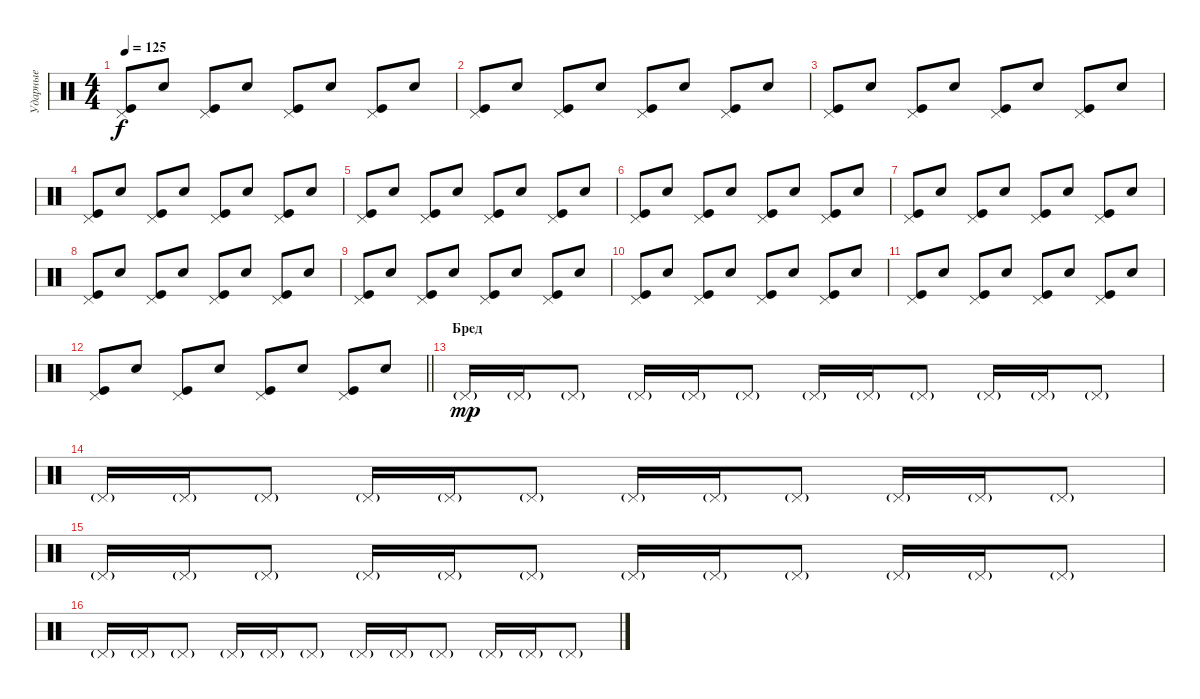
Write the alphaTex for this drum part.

\track ("Ударные" "Ударные") {instrument percussion}
\staff {score}
\articulation defaults
\ts (4 4)
\tempo 125
\clef neutral
\ks c
("Pedal Hi-Hat (hit)" "Kick (hit)").8{dy f} "Snare (hit) 2".8 ("Pedal Hi-Hat (hit)" "Kick (hit)").8 "Snare (hit) 2".8 ("Pedal Hi-Hat (hit)" "Kick (hit)").8 "Snare (hit) 2".8 ("Pedal Hi-Hat (hit)" "Kick (hit)").8 "Snare (hit) 2".8 |
("Pedal Hi-Hat (hit)" "Kick (hit)").8 "Snare (hit) 2".8 ("Pedal Hi-Hat (hit)" "Kick (hit)").8 "Snare (hit) 2".8 ("Pedal Hi-Hat (hit)" "Kick (hit)").8 "Snare (hit) 2".8 ("Pedal Hi-Hat (hit)" "Kick (hit)").8 "Snare (hit) 2".8 |
("Pedal Hi-Hat (hit)" "Kick (hit)").8 "Snare (hit) 2".8 ("Pedal Hi-Hat (hit)" "Kick (hit)").8 "Snare (hit) 2".8 ("Pedal Hi-Hat (hit)" "Kick (hit)").8 "Snare (hit) 2".8 ("Pedal Hi-Hat (hit)" "Kick (hit)").8 "Snare (hit) 2".8 |
("Pedal Hi-Hat (hit)" "Kick (hit)").8 "Snare (hit) 2".8 ("Pedal Hi-Hat (hit)" "Kick (hit)").8 "Snare (hit) 2".8 ("Pedal Hi-Hat (hit)" "Kick (hit)").8 "Snare (hit) 2".8 ("Pedal Hi-Hat (hit)" "Kick (hit)").8 "Snare (hit) 2".8 |
("Pedal Hi-Hat (hit)" "Kick (hit)").8 "Snare (hit) 2".8 ("Pedal Hi-Hat (hit)" "Kick (hit)").8 "Snare (hit) 2".8 ("Pedal Hi-Hat (hit)" "Kick (hit)").8 "Snare (hit) 2".8 ("Pedal Hi-Hat (hit)" "Kick (hit)").8 "Snare (hit) 2".8 |
("Pedal Hi-Hat (hit)" "Kick (hit)").8 "Snare (hit) 2".8 ("Pedal Hi-Hat (hit)" "Kick (hit)").8 "Snare (hit) 2".8 ("Pedal Hi-Hat (hit)" "Kick (hit)").8 "Snare (hit) 2".8 ("Pedal Hi-Hat (hit)" "Kick (hit)").8 "Snare (hit) 2".8 |
("Pedal Hi-Hat (hit)" "Kick (hit)").8 "Snare (hit) 2".8 ("Pedal Hi-Hat (hit)" "Kick (hit)").8 "Snare (hit) 2".8 ("Pedal Hi-Hat (hit)" "Kick (hit)").8 "Snare (hit) 2".8 ("Pedal Hi-Hat (hit)" "Kick (hit)").8 "Snare (hit) 2".8 |
("Pedal Hi-Hat (hit)" "Kick (hit)").8 "Snare (hit) 2".8 ("Pedal Hi-Hat (hit)" "Kick (hit)").8 "Snare (hit) 2".8 ("Pedal Hi-Hat (hit)" "Kick (hit)").8 "Snare (hit) 2".8 ("Pedal Hi-Hat (hit)" "Kick (hit)").8 "Snare (hit) 2".8 |
("Pedal Hi-Hat (hit)" "Kick (hit)").8 "Snare (hit) 2".8 ("Pedal Hi-Hat (hit)" "Kick (hit)").8 "Snare (hit) 2".8 ("Pedal Hi-Hat (hit)" "Kick (hit)").8 "Snare (hit) 2".8 ("Pedal Hi-Hat (hit)" "Kick (hit)").8 "Snare (hit) 2".8 |
("Pedal Hi-Hat (hit)" "Kick (hit)").8 "Snare (hit) 2".8 ("Pedal Hi-Hat (hit)" "Kick (hit)").8 "Snare (hit) 2".8 ("Pedal Hi-Hat (hit)" "Kick (hit)").8 "Snare (hit) 2".8 ("Pedal Hi-Hat (hit)" "Kick (hit)").8 "Snare (hit) 2".8 |
("Pedal Hi-Hat (hit)" "Kick (hit)").8 "Snare (hit) 2".8 ("Pedal Hi-Hat (hit)" "Kick (hit)").8 "Snare (hit) 2".8 ("Pedal Hi-Hat (hit)" "Kick (hit)").8 "Snare (hit) 2".8 ("Pedal Hi-Hat (hit)" "Kick (hit)").8 "Snare (hit) 2".8 |
\barLineRight lightlight
("Pedal Hi-Hat (hit)" "Kick (hit)").8 "Snare (hit) 2".8 ("Pedal Hi-Hat (hit)" "Kick (hit)").8 "Snare (hit) 2".8 ("Pedal Hi-Hat (hit)" "Kick (hit)").8 "Snare (hit) 2".8 ("Pedal Hi-Hat (hit)" "Kick (hit)").8 "Snare (hit) 2".8 |
\section ("" "Бред")
"Pedal Hi-Hat (hit)"{g}.16{dy mp} "Pedal Hi-Hat (hit)"{g}.16 "Pedal Hi-Hat (hit)"{g}.8 "Pedal Hi-Hat (hit)"{g}.16 "Pedal Hi-Hat (hit)"{g}.16 "Pedal Hi-Hat (hit)"{g}.8 "Pedal Hi-Hat (hit)"{g}.16 "Pedal Hi-Hat (hit)"{g}.16 "Pedal Hi-Hat (hit)"{g}.8 "Pedal Hi-Hat (hit)"{g}.16 "Pedal Hi-Hat (hit)"{g}.16 "Pedal Hi-Hat (hit)"{g}.8 |
"Pedal Hi-Hat (hit)"{g}.16 "Pedal Hi-Hat (hit)"{g}.16 "Pedal Hi-Hat (hit)"{g}.8 "Pedal Hi-Hat (hit)"{g}.16 "Pedal Hi-Hat (hit)"{g}.16 "Pedal Hi-Hat (hit)"{g}.8 "Pedal Hi-Hat (hit)"{g}.16 "Pedal Hi-Hat (hit)"{g}.16 "Pedal Hi-Hat (hit)"{g}.8 "Pedal Hi-Hat (hit)"{g}.16 "Pedal Hi-Hat (hit)"{g}.16 "Pedal Hi-Hat (hit)"{g}.8 |
"Pedal Hi-Hat (hit)"{g}.16 "Pedal Hi-Hat (hit)"{g}.16 "Pedal Hi-Hat (hit)"{g}.8 "Pedal Hi-Hat (hit)"{g}.16 "Pedal Hi-Hat (hit)"{g}.16 "Pedal Hi-Hat (hit)"{g}.8 "Pedal Hi-Hat (hit)"{g}.16 "Pedal Hi-Hat (hit)"{g}.16 "Pedal Hi-Hat (hit)"{g}.8 "Pedal Hi-Hat (hit)"{g}.16 "Pedal Hi-Hat (hit)"{g}.16 "Pedal Hi-Hat (hit)"{g}.8 |
"Pedal Hi-Hat (hit)"{g}.16 "Pedal Hi-Hat (hit)"{g}.16 "Pedal Hi-Hat (hit)"{g}.8 "Pedal Hi-Hat (hit)"{g}.16 "Pedal Hi-Hat (hit)"{g}.16 "Pedal Hi-Hat (hit)"{g}.8 "Pedal Hi-Hat (hit)"{g}.16 "Pedal Hi-Hat (hit)"{g}.16 "Pedal Hi-Hat (hit)"{g}.8 "Pedal Hi-Hat (hit)"{g}.16 "Pedal Hi-Hat (hit)"{g}.16 "Pedal Hi-Hat (hit)"{g}.8
